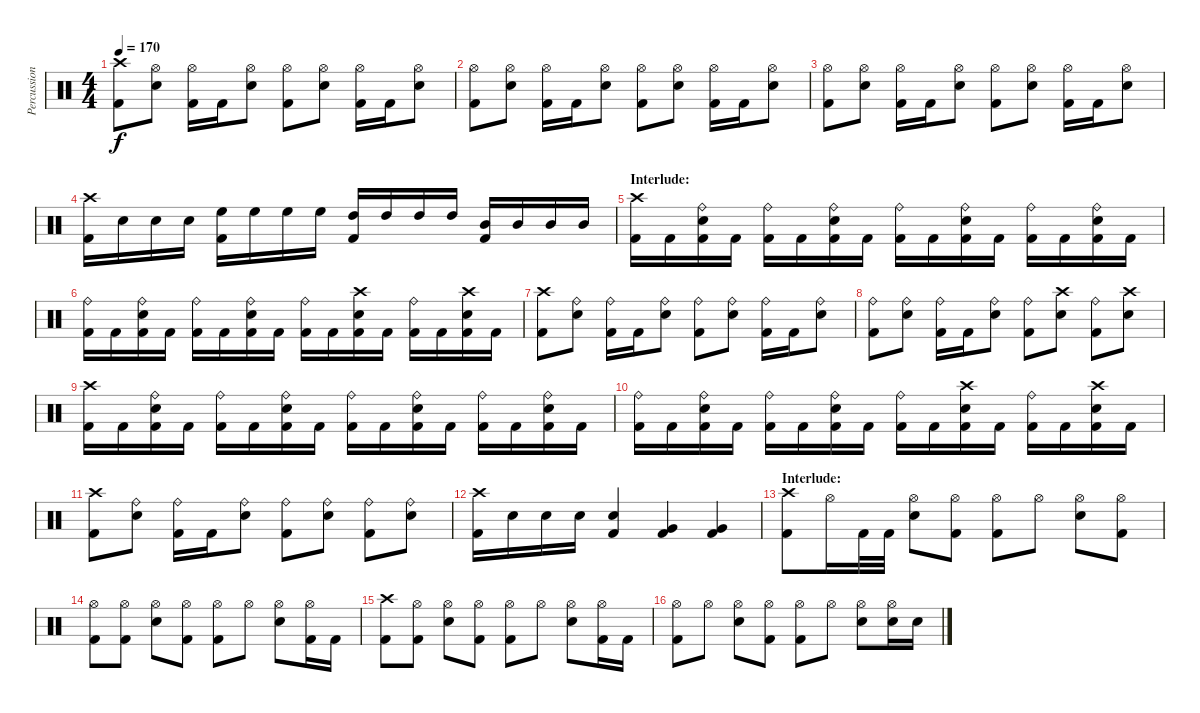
\track ("Percussion" "Percussion") {instrument percussion}
\staff {score}
\articulation defaults
\ts (4 4)
\tempo 170
\clef neutral
\ks c
("Crash high (hit)" "Kick (hit) 2").8{dy f} ("Hi-Hat (open)" "Electric Snare (hit)").8 ("Hi-Hat (open)" "Kick (hit) 2").16 "Kick (hit) 2".16 ("Hi-Hat (open)" "Electric Snare (hit)").8 ("Hi-Hat (open)" "Kick (hit) 2").8 ("Hi-Hat (open)" "Electric Snare (hit)").8 ("Hi-Hat (open)" "Kick (hit) 2").16 "Kick (hit) 2".16 ("Hi-Hat (open)" "Electric Snare (hit)").8 |
("Hi-Hat (open)" "Kick (hit) 2").8 ("Hi-Hat (open)" "Electric Snare (hit)").8 ("Hi-Hat (open)" "Kick (hit) 2").16 "Kick (hit) 2".16 ("Hi-Hat (open)" "Electric Snare (hit)").8 ("Hi-Hat (open)" "Kick (hit) 2").8 ("Hi-Hat (open)" "Electric Snare (hit)").8 ("Hi-Hat (open)" "Kick (hit) 2").16 "Kick (hit) 2".16 ("Hi-Hat (open)" "Electric Snare (hit)").8 |
("Hi-Hat (open)" "Kick (hit) 2").8 ("Hi-Hat (open)" "Electric Snare (hit)").8 ("Hi-Hat (open)" "Kick (hit) 2").16 "Kick (hit) 2".16 ("Hi-Hat (open)" "Electric Snare (hit)").8 ("Hi-Hat (open)" "Kick (hit) 2").8 ("Hi-Hat (open)" "Electric Snare (hit)").8 ("Hi-Hat (open)" "Kick (hit) 2").16 "Kick (hit) 2".16 ("Hi-Hat (open)" "Electric Snare (hit)").8 |
("Crash high (hit)" "Kick (hit) 2").16 "Electric Snare (hit)".16 "Electric Snare (hit)".16 "Electric Snare (hit)".16 ("High Floor Tom (hit)" "Kick (hit) 2").16 "High Floor Tom (hit)".16 "High Floor Tom (hit)".16 "High Floor Tom (hit)".16 ("High Tom (hit)" "Kick (hit) 2").16 "High Tom (hit)".16 "High Tom (hit)".16 "High Tom (hit)".16 ("Mid Tom (hit)" "Kick (hit) 2").16 "Mid Tom (hit)".16 "Mid Tom (hit)".16 "Mid Tom (hit)".16 |
\section ("" "Interlude:")
("Crash high (hit)" "Kick (hit) 2").16 "Kick (hit) 2".16 ("Ride (bell)" "Electric Snare (hit)" "Kick (hit) 2").16 "Kick (hit) 2".16 ("Ride (bell)" "Kick (hit) 2").16 "Kick (hit) 2".16 ("Ride (bell)" "Electric Snare (hit)" "Kick (hit) 2").16 "Kick (hit) 2".16 ("Ride (bell)" "Kick (hit) 2").16 "Kick (hit) 2".16 ("Ride (bell)" "Electric Snare (hit)" "Kick (hit) 2").16 "Kick (hit) 2".16 ("Ride (bell)" "Kick (hit) 2").16 "Kick (hit) 2".16 ("Ride (bell)" "Electric Snare (hit)" "Kick (hit) 2").16 "Kick (hit) 2".16 |
("Ride (bell)" "Kick (hit) 2").16 "Kick (hit) 2".16 ("Ride (bell)" "Electric Snare (hit)" "Kick (hit) 2").16 "Kick (hit) 2".16 ("Ride (bell)" "Kick (hit) 2").16 "Kick (hit) 2".16 ("Ride (bell)" "Electric Snare (hit)" "Kick (hit) 2").16 "Kick (hit) 2".16 ("Ride (bell)" "Kick (hit) 2").16 "Kick (hit) 2".16 ("Crash high (hit)" "Electric Snare (hit)" "Kick (hit) 2").16 "Kick (hit) 2".16 ("Ride (bell)" "Kick (hit) 2").16 "Kick (hit) 2".16 ("Crash high (hit)" "Electric Snare (hit)" "Kick (hit) 2").16 "Kick (hit) 2".16 |
("Crash high (hit)" "Kick (hit) 2").8 ("Ride (bell)" "Electric Snare (hit)").8 ("Ride (bell)" "Kick (hit) 2").16 "Kick (hit) 2".16 ("Ride (bell)" "Electric Snare (hit)").8 ("Ride (bell)" "Kick (hit) 2").8 ("Ride (bell)" "Electric Snare (hit)").8 ("Ride (bell)" "Kick (hit) 2").16 "Kick (hit) 2".16 ("Ride (bell)" "Electric Snare (hit)").8 |
("Ride (bell)" "Kick (hit) 2").8 ("Ride (bell)" "Electric Snare (hit)").8 ("Ride (bell)" "Kick (hit) 2").16 "Kick (hit) 2".16 ("Ride (bell)" "Electric Snare (hit)").8 ("Ride (bell)" "Kick (hit) 2").8 ("Crash high (hit)" "Electric Snare (hit)").8 ("Ride (bell)" "Kick (hit) 2").8 ("Crash high (hit)" "Electric Snare (hit)").8 |
("Crash high (hit)" "Kick (hit) 2").16 "Kick (hit) 2".16 ("Ride (bell)" "Electric Snare (hit)" "Kick (hit) 2").16 "Kick (hit) 2".16 ("Ride (bell)" "Kick (hit) 2").16 "Kick (hit) 2".16 ("Ride (bell)" "Electric Snare (hit)" "Kick (hit) 2").16 "Kick (hit) 2".16 ("Ride (bell)" "Kick (hit) 2").16 "Kick (hit) 2".16 ("Ride (bell)" "Electric Snare (hit)" "Kick (hit) 2").16 "Kick (hit) 2".16 ("Ride (bell)" "Kick (hit) 2").16 "Kick (hit) 2".16 ("Ride (bell)" "Electric Snare (hit)" "Kick (hit) 2").16 "Kick (hit) 2".16 |
("Ride (bell)" "Kick (hit) 2").16 "Kick (hit) 2".16 ("Ride (bell)" "Electric Snare (hit)" "Kick (hit) 2").16 "Kick (hit) 2".16 ("Ride (bell)" "Kick (hit) 2").16 "Kick (hit) 2".16 ("Ride (bell)" "Electric Snare (hit)" "Kick (hit) 2").16 "Kick (hit) 2".16 ("Ride (bell)" "Kick (hit) 2").16 "Kick (hit) 2".16 ("Crash high (hit)" "Electric Snare (hit)" "Kick (hit) 2").16 "Kick (hit) 2".16 ("Ride (bell)" "Kick (hit) 2").16 "Kick (hit) 2".16 ("Crash high (hit)" "Electric Snare (hit)" "Kick (hit) 2").16 "Kick (hit) 2".16 |
("Crash high (hit)" "Kick (hit) 2").8 ("Ride (bell)" "Electric Snare (hit)").8 ("Ride (bell)" "Kick (hit) 2").16 "Kick (hit) 2".16 ("Ride (bell)" "Electric Snare (hit)").8 ("Ride (bell)" "Kick (hit) 2").8 ("Ride (bell)" "Electric Snare (hit)").8 ("Ride (bell)" "Kick (hit) 2").8 ("Ride (bell)" "Electric Snare (hit)").8 |
("Crash high (hit)" "Kick (hit) 2").16 "Electric Snare (hit)".16 "Electric Snare (hit)".16 "Electric Snare (hit)".16 ("Electric Snare (hit)" "Kick (hit) 2").4 ("Very Low Tom (hit)" "Kick (hit) 2").4 ("Very Low Tom (hit)" "Kick (hit) 2").4 |
\section ("" "Interlude:")
("Crash high (hit)" "Kick (hit) 2").8 "Hi-Hat (open)".16 "Kick (hit) 2".32 "Kick (hit) 2".32 ("Hi-Hat (open)" "Electric Snare (hit)").8 ("Hi-Hat (open)" "Kick (hit) 2").8 ("Hi-Hat (open)" "Kick (hit) 2").8 "Hi-Hat (open)".8 ("Hi-Hat (open)" "Electric Snare (hit)").8 ("Hi-Hat (open)" "Kick (hit) 2").8 |
("Hi-Hat (open)" "Kick (hit) 2").8 ("Hi-Hat (open)" "Kick (hit) 2").8 ("Hi-Hat (open)" "Electric Snare (hit)").8 ("Hi-Hat (open)" "Kick (hit) 2").8 ("Hi-Hat (open)" "Kick (hit) 2").8 "Hi-Hat (open)".8 ("Hi-Hat (open)" "Electric Snare (hit)").8 ("Hi-Hat (open)" "Kick (hit) 2").16 "Kick (hit) 2".16 |
("Crash high (hit)" "Kick (hit) 2").8 ("Hi-Hat (open)" "Kick (hit) 2").8 ("Hi-Hat (open)" "Electric Snare (hit)").8 ("Hi-Hat (open)" "Kick (hit) 2").8 ("Hi-Hat (open)" "Kick (hit) 2").8 "Hi-Hat (open)".8 ("Hi-Hat (open)" "Electric Snare (hit)").8 ("Hi-Hat (open)" "Kick (hit) 2").16 "Kick (hit) 2".16 |
("Hi-Hat (open)" "Kick (hit) 2").8 "Hi-Hat (open)".8 ("Hi-Hat (open)" "Electric Snare (hit)").8 ("Hi-Hat (open)" "Kick (hit) 2").8 ("Hi-Hat (open)" "Kick (hit) 2").8 "Hi-Hat (open)".8 ("Hi-Hat (open)" "Electric Snare (hit)").8 ("Hi-Hat (open)" "Electric Snare (hit)").16 "Electric Snare (hit)".16
